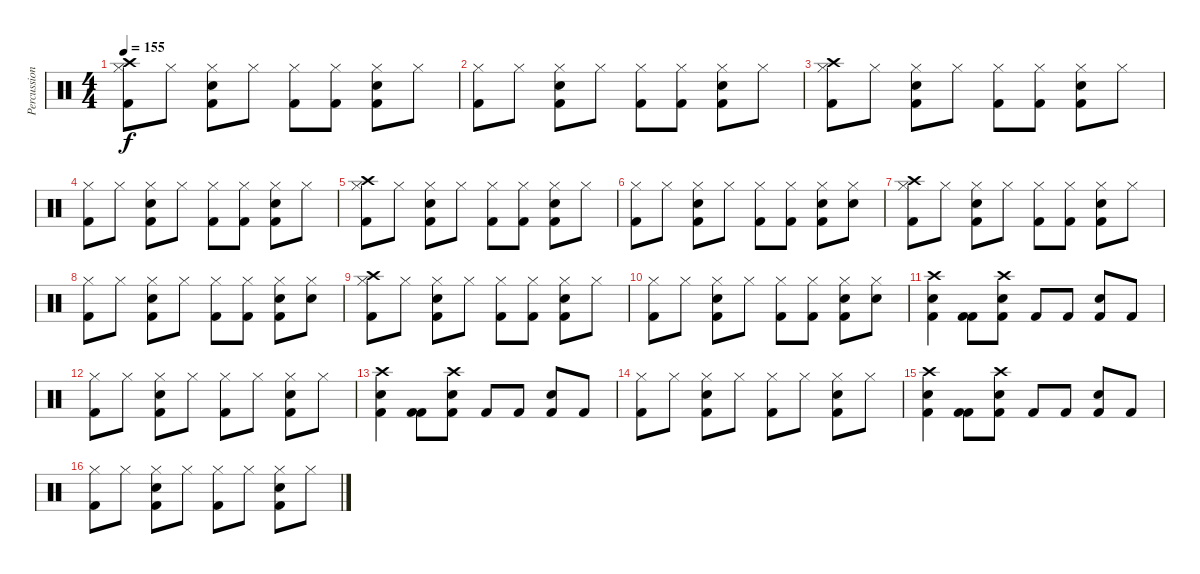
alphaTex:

\track ("Percussion" "Percussion") {instrument percussion}
\staff {score}
\articulation defaults
\ts (4 4)
\tempo 155
\clef neutral
\ks c
("Crash high (hit)" "Kick (hit) 2" "Hi-Hat (closed)").8{dy f} "Hi-Hat (closed)".8 ("Kick (hit) 2" "Snare (hit) 2" "Hi-Hat (closed)").8 "Hi-Hat (closed)".8 ("Kick (hit) 2" "Hi-Hat (closed)").8 ("Kick (hit) 2" "Hi-Hat (closed)").8 ("Kick (hit) 2" "Snare (hit) 2" "Hi-Hat (closed)").8 "Hi-Hat (closed)".8 |
("Kick (hit) 2" "Hi-Hat (closed)").8 "Hi-Hat (closed)".8 ("Kick (hit) 2" "Snare (hit) 2" "Hi-Hat (closed)").8 "Hi-Hat (closed)".8 ("Kick (hit) 2" "Hi-Hat (closed)").8 ("Kick (hit) 2" "Hi-Hat (closed)").8 ("Kick (hit) 2" "Snare (hit) 2" "Hi-Hat (closed)").8 "Hi-Hat (closed)".8 |
("Crash high (hit)" "Kick (hit) 2" "Hi-Hat (closed)").8 "Hi-Hat (closed)".8 ("Kick (hit) 2" "Snare (hit) 2" "Hi-Hat (closed)").8 "Hi-Hat (closed)".8 ("Kick (hit) 2" "Hi-Hat (closed)").8 ("Kick (hit) 2" "Hi-Hat (closed)").8 ("Kick (hit) 2" "Snare (hit) 2" "Hi-Hat (closed)").8 "Hi-Hat (closed)".8 |
("Kick (hit) 2" "Hi-Hat (closed)").8 "Hi-Hat (closed)".8 ("Kick (hit) 2" "Snare (hit) 2" "Hi-Hat (closed)").8 "Hi-Hat (closed)".8 ("Kick (hit) 2" "Hi-Hat (closed)").8 ("Kick (hit) 2" "Hi-Hat (closed)").8 ("Kick (hit) 2" "Snare (hit) 2" "Hi-Hat (closed)").8 "Hi-Hat (closed)".8 |
("Crash high (hit)" "Kick (hit) 2" "Hi-Hat (closed)").8 "Hi-Hat (closed)".8 ("Kick (hit) 2" "Snare (hit) 2" "Hi-Hat (closed)").8 "Hi-Hat (closed)".8 ("Kick (hit) 2" "Hi-Hat (closed)").8 ("Kick (hit) 2" "Hi-Hat (closed)").8 ("Kick (hit) 2" "Snare (hit) 2" "Hi-Hat (closed)").8 "Hi-Hat (closed)".8 |
("Kick (hit) 2" "Hi-Hat (closed)").8 "Hi-Hat (closed)".8 ("Kick (hit) 2" "Snare (hit) 2" "Hi-Hat (closed)").8 "Hi-Hat (closed)".8 ("Kick (hit) 2" "Hi-Hat (closed)").8 ("Kick (hit) 2" "Hi-Hat (closed)").8 ("Kick (hit) 2" "Snare (hit) 2" "Hi-Hat (closed)").8 ("Snare (hit) 2" "Hi-Hat (closed)").8 |
("Crash high (hit)" "Kick (hit) 2" "Hi-Hat (closed)").8 "Hi-Hat (closed)".8 ("Kick (hit) 2" "Snare (hit) 2" "Hi-Hat (closed)").8 "Hi-Hat (closed)".8 ("Kick (hit) 2" "Hi-Hat (closed)").8 ("Kick (hit) 2" "Hi-Hat (closed)").8 ("Kick (hit) 2" "Snare (hit) 2" "Hi-Hat (closed)").8 "Hi-Hat (closed)".8 |
("Kick (hit) 2" "Hi-Hat (closed)").8 "Hi-Hat (closed)".8 ("Kick (hit) 2" "Snare (hit) 2" "Hi-Hat (closed)").8 "Hi-Hat (closed)".8 ("Kick (hit) 2" "Hi-Hat (closed)").8 ("Kick (hit) 2" "Hi-Hat (closed)").8 ("Kick (hit) 2" "Snare (hit) 2" "Hi-Hat (closed)").8 ("Snare (hit) 2" "Hi-Hat (closed)").8 |
("Crash high (hit)" "Kick (hit) 2" "Hi-Hat (closed)").8 "Hi-Hat (closed)".8 ("Kick (hit) 2" "Snare (hit) 2" "Hi-Hat (closed)").8 "Hi-Hat (closed)".8 ("Kick (hit) 2" "Hi-Hat (closed)").8 ("Kick (hit) 2" "Hi-Hat (closed)").8 ("Kick (hit) 2" "Snare (hit) 2" "Hi-Hat (closed)").8 "Hi-Hat (closed)".8 |
("Kick (hit) 2" "Hi-Hat (closed)").8 "Hi-Hat (closed)".8 ("Kick (hit) 2" "Snare (hit) 2" "Hi-Hat (closed)").8 "Hi-Hat (closed)".8 ("Kick (hit) 2" "Hi-Hat (closed)").8 ("Kick (hit) 2" "Hi-Hat (closed)").8 ("Kick (hit) 2" "Snare (hit) 2" "Hi-Hat (closed)").8 ("Snare (hit) 2" "Hi-Hat (closed)").8 |
("Crash high (hit)" "Snare (hit) 2" "Kick (hit) 2").4 ("Kick (hit) 2" "Kick (hit) 2").8 ("Crash high (hit)" "Snare (hit) 2" "Kick (hit) 2").8 "Kick (hit) 2".8 "Kick (hit) 2".8 ("Snare (hit) 2" "Kick (hit) 2").8 "Kick (hit) 2".8 |
("Kick (hit) 2" "Hi-Hat (closed)").8 "Hi-Hat (closed)".8 ("Snare (hit) 2" "Kick (hit) 2" "Hi-Hat (closed)").8 "Hi-Hat (closed)".8 ("Kick (hit) 2" "Hi-Hat (closed)").8 "Hi-Hat (closed)".8 ("Snare (hit) 2" "Kick (hit) 2" "Hi-Hat (closed)").8 "Hi-Hat (closed)".8 |
("Crash high (hit)" "Snare (hit) 2" "Kick (hit) 2").4 ("Kick (hit) 2" "Kick (hit) 2").8 ("Crash high (hit)" "Snare (hit) 2" "Kick (hit) 2").8 "Kick (hit) 2".8 "Kick (hit) 2".8 ("Snare (hit) 2" "Kick (hit) 2").8 "Kick (hit) 2".8 |
("Kick (hit) 2" "Hi-Hat (closed)").8 "Hi-Hat (closed)".8 ("Snare (hit) 2" "Kick (hit) 2" "Hi-Hat (closed)").8 "Hi-Hat (closed)".8 ("Kick (hit) 2" "Hi-Hat (closed)").8 "Hi-Hat (closed)".8 ("Snare (hit) 2" "Kick (hit) 2" "Hi-Hat (closed)").8 "Hi-Hat (closed)".8 |
("Crash high (hit)" "Snare (hit) 2" "Kick (hit) 2").4 ("Kick (hit) 2" "Kick (hit) 2").8 ("Crash high (hit)" "Snare (hit) 2" "Kick (hit) 2").8 "Kick (hit) 2".8 "Kick (hit) 2".8 ("Snare (hit) 2" "Kick (hit) 2").8 "Kick (hit) 2".8 |
("Kick (hit) 2" "Hi-Hat (closed)").8 "Hi-Hat (closed)".8 ("Snare (hit) 2" "Kick (hit) 2" "Hi-Hat (closed)").8 "Hi-Hat (closed)".8 ("Kick (hit) 2" "Hi-Hat (closed)").8 "Hi-Hat (closed)".8 ("Snare (hit) 2" "Kick (hit) 2" "Hi-Hat (closed)").8 "Hi-Hat (closed)".8
